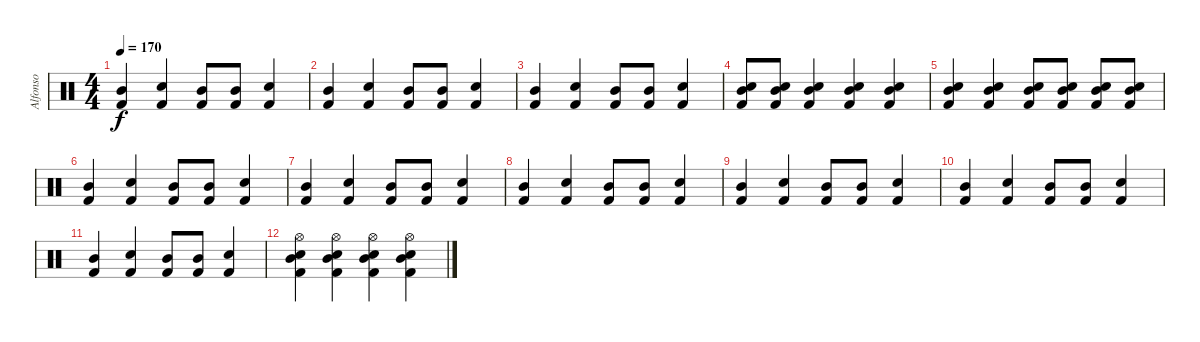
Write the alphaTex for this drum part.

\track ("Alfonso" "Alfonso") {instrument percussion}
\staff {score}
\articulation defaults
\ts (4 4)
\tempo 170
\clef neutral
\ks c
("Kick (hit) 2" "Mid Tom (hit)").4{dy f} ("Kick (hit) 2" "Snare (hit) 2").4 ("Kick (hit) 2" "Mid Tom (hit)").8 ("Kick (hit) 2" "Mid Tom (hit)").8 ("Kick (hit) 2" "Snare (hit) 2").4 |
("Kick (hit) 2" "Mid Tom (hit)").4 ("Kick (hit) 2" "Snare (hit) 2").4 ("Kick (hit) 2" "Mid Tom (hit)").8 ("Kick (hit) 2" "Mid Tom (hit)").8 ("Kick (hit) 2" "Snare (hit) 2").4 |
("Kick (hit) 2" "Mid Tom (hit)").4 ("Kick (hit) 2" "Snare (hit) 2").4 ("Kick (hit) 2" "Mid Tom (hit)").8 ("Kick (hit) 2" "Mid Tom (hit)").8 ("Kick (hit) 2" "Snare (hit) 2").4 |
("Kick (hit) 2" "Snare (hit) 2" "Mid Tom (hit)").8 ("Kick (hit) 2" "Snare (hit) 2" "Mid Tom (hit)").8 ("Kick (hit) 2" "Snare (hit) 2" "Mid Tom (hit)").4 ("Kick (hit) 2" "Snare (hit) 2" "Mid Tom (hit)").4 ("Kick (hit) 2" "Snare (hit) 2" "Mid Tom (hit)").4 |
("Kick (hit) 2" "Snare (hit) 2" "Mid Tom (hit)").4 ("Kick (hit) 2" "Snare (hit) 2" "Mid Tom (hit)").4 ("Kick (hit) 2" "Snare (hit) 2" "Mid Tom (hit)").8 ("Kick (hit) 2" "Snare (hit) 2" "Mid Tom (hit)").8 ("Kick (hit) 2" "Snare (hit) 2" "Mid Tom (hit)").8 ("Kick (hit) 2" "Snare (hit) 2" "Mid Tom (hit)").8 |
("Kick (hit) 2" "Mid Tom (hit)").4 ("Kick (hit) 2" "Snare (hit) 2").4 ("Kick (hit) 2" "Mid Tom (hit)").8 ("Kick (hit) 2" "Mid Tom (hit)").8 ("Kick (hit) 2" "Snare (hit) 2").4 |
("Kick (hit) 2" "Mid Tom (hit)").4 ("Kick (hit) 2" "Snare (hit) 2").4 ("Kick (hit) 2" "Mid Tom (hit)").8 ("Kick (hit) 2" "Mid Tom (hit)").8 ("Kick (hit) 2" "Snare (hit) 2").4 |
("Kick (hit) 2" "Mid Tom (hit)").4 ("Kick (hit) 2" "Snare (hit) 2").4 ("Kick (hit) 2" "Mid Tom (hit)").8 ("Kick (hit) 2" "Mid Tom (hit)").8 ("Kick (hit) 2" "Snare (hit) 2").4 |
("Kick (hit) 2" "Mid Tom (hit)").4 ("Kick (hit) 2" "Snare (hit) 2").4 ("Kick (hit) 2" "Mid Tom (hit)").8 ("Kick (hit) 2" "Mid Tom (hit)").8 ("Kick (hit) 2" "Snare (hit) 2").4 |
("Kick (hit) 2" "Mid Tom (hit)").4 ("Kick (hit) 2" "Snare (hit) 2").4 ("Kick (hit) 2" "Mid Tom (hit)").8 ("Kick (hit) 2" "Mid Tom (hit)").8 ("Kick (hit) 2" "Snare (hit) 2").4 |
("Kick (hit) 2" "Mid Tom (hit)").4 ("Kick (hit) 2" "Snare (hit) 2").4 ("Kick (hit) 2" "Mid Tom (hit)").8 ("Kick (hit) 2" "Mid Tom (hit)").8 ("Kick (hit) 2" "Snare (hit) 2").4 |
("Kick (hit) 2" "Snare (hit) 2" "Mid Tom (hit)" "Hi-Hat (open)").4 ("Kick (hit) 2" "Snare (hit) 2" "Mid Tom (hit)" "Hi-Hat (open)").4 ("Kick (hit) 2" "Snare (hit) 2" "Mid Tom (hit)" "Hi-Hat (open)").4 ("Kick (hit) 2" "Snare (hit) 2" "Mid Tom (hit)" "Hi-Hat (open)").4
